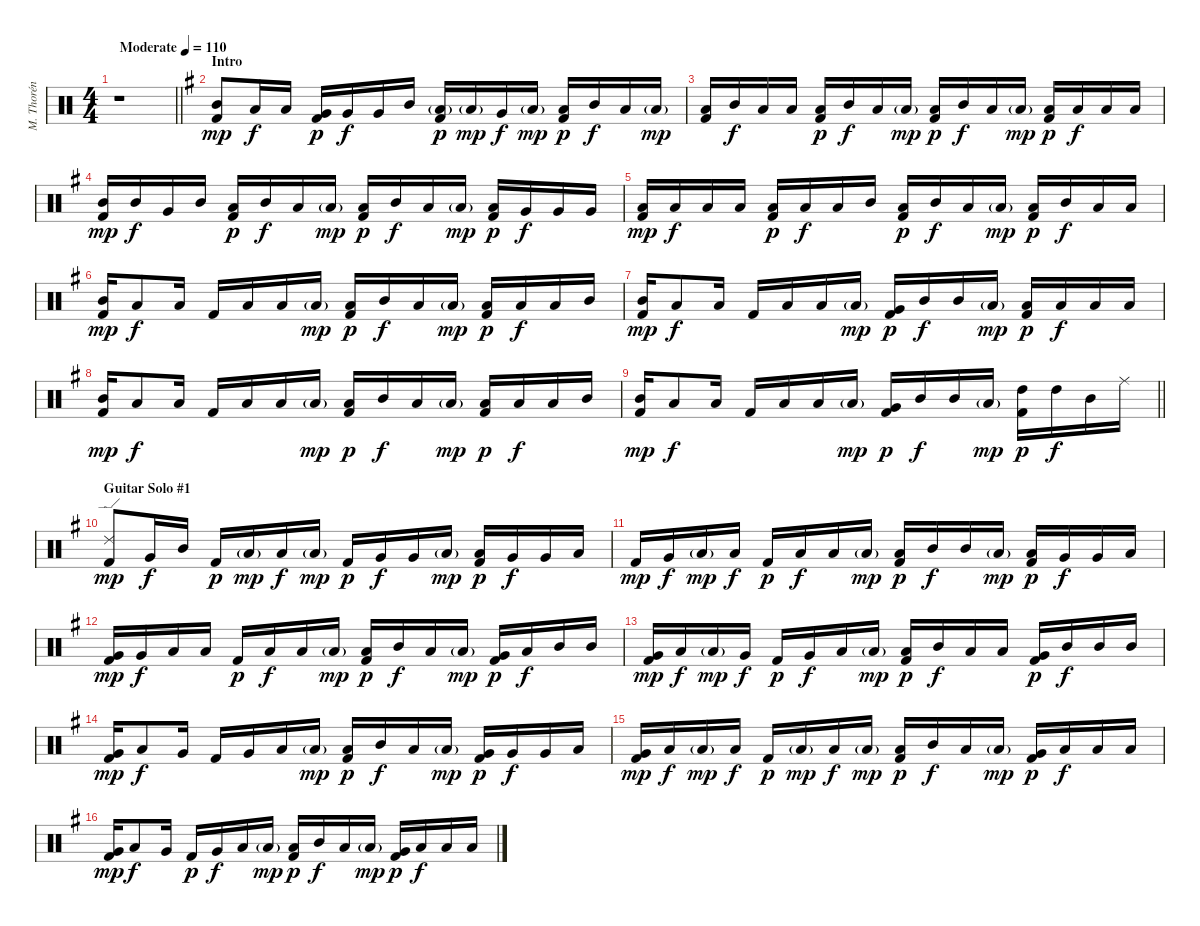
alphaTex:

\track ("M. Thorén (Drums)" "M. Thorén ") {instrument percussion}
\staff {score}
\articulation defaults
\ts (4 4)
\tempo (110 "Moderate")
\clef neutral
\barLineRight lightlight
\ks c
r.1{dy mp} |
\section ("" "Intro")
\ks eminor
("Mid Tom (hit)" "Kick (hit) 2").8 "Low Tom (hit)".16{dy f} "Low Tom (hit)".16 ("Very Low Tom (hit)" "Kick (hit) 2").16{dy p} "Very Low Tom (hit)".16{dy f} "Very Low Tom (hit)".16 "Mid Tom (hit)".16 ("Low Tom (hit)"{g} "Kick (hit) 2").16{dy p} "Low Tom (hit)"{g}.16{dy mp} "Very Low Tom (hit)".16{dy f} "Low Tom (hit)"{g}.16{dy mp} ("Low Floor Tom (hit)" "Kick (hit) 2").16{dy p} "Mid Tom (hit)".16{dy f} "Low Floor Tom (hit)".16 "Low Tom (hit)"{g}.16{dy mp} |
("Low Floor Tom (hit)" "Kick (hit) 2").16 "Mid Tom (hit)".16{dy f} "Low Tom (hit)".16 "Low Tom (hit)".16 ("Low Floor Tom (hit)" "Kick (hit) 2").16{dy p} "Mid Tom (hit)".16{dy f} "Low Floor Tom (hit)".16 "Low Tom (hit)"{g}.16{dy mp} ("Low Floor Tom (hit)" "Kick (hit) 2").16{dy p} "Mid Tom (hit)".16{dy f} "Low Floor Tom (hit)".16 "Low Tom (hit)"{g}.16{dy mp} ("Low Tom (hit)" "Kick (hit) 2").16{dy p} "Low Floor Tom (hit)".16{dy f} "Low Floor Tom (hit)".16 "Low Floor Tom (hit)".16 |
("Mid Tom (hit)" "Kick (hit) 2").16{dy mp} "Mid Tom (hit)".16{dy f} "Very Low Tom (hit)".16 "Mid Tom (hit)".16 ("Low Floor Tom (hit)" "Kick (hit) 2").16{dy p} "Mid Tom (hit)".16{dy f} "Low Floor Tom (hit)".16 "Low Tom (hit)"{g}.16{dy mp} ("Low Floor Tom (hit)" "Kick (hit) 2").16{dy p} "Mid Tom (hit)".16{dy f} "Low Floor Tom (hit)".16 "Low Tom (hit)"{g}.16{dy mp} ("Low Floor Tom (hit)" "Kick (hit) 2").16{dy p} "Very Low Tom (hit)".16{dy f} "Very Low Tom (hit)".16 "Very Low Tom (hit)".16 |
("Low Tom (hit)" "Kick (hit) 2").16{dy mp} "Low Tom (hit)".16{dy f} "Low Tom (hit)".16 "Low Tom (hit)".16 ("Low Floor Tom (hit)" "Kick (hit) 2").16{dy p} "Low Floor Tom (hit)".16{dy f} "Low Floor Tom (hit)".16 "Mid Tom (hit)".16 ("Low Floor Tom (hit)" "Kick (hit) 2").16{dy p} "Mid Tom (hit)".16{dy f} "Low Floor Tom (hit)".16 "Low Tom (hit)"{g}.16{dy mp} ("Low Floor Tom (hit)" "Kick (hit) 2").16{dy p} "Mid Tom (hit)".16{dy f} "Low Tom (hit)".16 "Low Tom (hit)".16 |
("Mid Tom (hit)" "Kick (hit) 2").16{dy mp} "Low Tom (hit)".8{dy f} "Low Tom (hit)".16 "Kick (hit) 2".16 "Low Tom (hit)".16 "Low Floor Tom (hit)".16 "Low Tom (hit)"{g}.16{dy mp} ("Low Floor Tom (hit)" "Kick (hit) 2").16{dy p} "Mid Tom (hit)".16{dy f} "Low Floor Tom (hit)".16 "Low Tom (hit)"{g}.16{dy mp} ("Low Floor Tom (hit)" "Kick (hit) 2").16{dy p} "Low Floor Tom (hit)".16{dy f} "Low Floor Tom (hit)".16 "Mid Tom (hit)".16 |
("Mid Tom (hit)" "Kick (hit) 2").16{dy mp} "Low Tom (hit)".8{dy f} "Low Tom (hit)".16 "Kick (hit) 2".16 "Low Tom (hit)".16 "Low Floor Tom (hit)".16 "Low Tom (hit)"{g}.16{dy mp} ("Very Low Tom (hit)" "Kick (hit) 2").16{dy p} "Mid Tom (hit)".16{dy f} "Mid Tom (hit)".16 "Low Tom (hit)"{g}.16{dy mp} ("Low Floor Tom (hit)" "Kick (hit) 2").16{dy p} "Low Tom (hit)".16{dy f} "Low Tom (hit)".16 "Low Tom (hit)".16 |
("Mid Tom (hit)" "Kick (hit) 2").16{dy mp} "Low Tom (hit)".8{dy f} "Low Tom (hit)".16 "Kick (hit) 2".16 "Low Tom (hit)".16 "Low Floor Tom (hit)".16 "Low Tom (hit)"{g}.16{dy mp} ("Low Floor Tom (hit)" "Kick (hit) 2").16{dy p} "Mid Tom (hit)".16{dy f} "Low Floor Tom (hit)".16 "Low Tom (hit)"{g}.16{dy mp} ("Low Floor Tom (hit)" "Kick (hit) 2").16{dy p} "Low Floor Tom (hit)".16{dy f} "Low Floor Tom (hit)".16 "Mid Tom (hit)".16 |
\barLineRight lightlight
("Mid Tom (hit)" "Kick (hit) 2").16{dy mp} "Low Tom (hit)".8{dy f} "Low Tom (hit)".16 "Kick (hit) 2".16 "Low Tom (hit)".16 "Low Floor Tom (hit)".16 "Low Tom (hit)"{g}.16{dy mp} ("Very Low Tom (hit)" "Kick (hit) 2").16{dy p} "Mid Tom (hit)".16{dy f} "Mid Tom (hit)".16 "Low Tom (hit)"{g}.16{dy mp} ("High Tom (hit)" "Kick (hit) 2").16{dy p} "High Tom (hit)".16{dy f} "Mid Tom (hit)".16 "Ride (middle)".16 |
\section ("" "Guitar Solo #1")
("Ride (edge) 2" "Kick (hit) 2").8{dy mp} "Very Low Tom (hit)".16{dy f} "Mid Tom (hit)".16 "Kick (hit) 2".16{dy p} "Low Tom (hit)"{g}.16{dy mp} "Low Floor Tom (hit)".16{dy f} "Low Tom (hit)"{g}.16{dy mp} "Kick (hit) 2".16{dy p} "Very Low Tom (hit)".16{dy f} "Very Low Tom (hit)".16 "Low Tom (hit)"{g}.16{dy mp} ("Low Tom (hit)" "Kick (hit) 2").16{dy p} "Very Low Tom (hit)".16{dy f} "Very Low Tom (hit)".16 "Low Tom (hit)".16 |
"Kick (hit) 2".16{dy mp} "Very Low Tom (hit)".16{dy f} "Low Tom (hit)"{g}.16{dy mp} "Low Tom (hit)".16{dy f} "Kick (hit) 2".16{dy p} "Low Tom (hit)".16{dy f} "Low Floor Tom (hit)".16 "Low Tom (hit)"{g}.16{dy mp} ("Low Floor Tom (hit)" "Kick (hit) 2").16{dy p} "Mid Tom (hit)".16{dy f} "Mid Tom (hit)".16 "Low Tom (hit)"{g}.16{dy mp} ("Low Tom (hit)" "Kick (hit) 2").16{dy p} "Very Low Tom (hit)".16{dy f} "Very Low Tom (hit)".16 "Low Tom (hit)".16 |
("Very Low Tom (hit)" "Kick (hit) 2").16{dy mp} "Very Low Tom (hit)".16{dy f} "Low Floor Tom (hit)".16 "Low Tom (hit)".16 "Kick (hit) 2".16{dy p} "Low Tom (hit)".16{dy f} "Low Floor Tom (hit)".16 "Low Tom (hit)"{g}.16{dy mp} ("Low Floor Tom (hit)" "Kick (hit) 2").16{dy p} "Mid Tom (hit)".16{dy f} "Low Floor Tom (hit)".16 "Low Tom (hit)"{g}.16{dy mp} ("Very Low Tom (hit)" "Kick (hit) 2").16{dy p} "Low Floor Tom (hit)".16{dy f} "Mid Tom (hit)".16 "Mid Tom (hit)".16 |
("Very Low Tom (hit)" "Kick (hit) 2").16{dy mp} "Low Floor Tom (hit)".16{dy f} "Low Floor Tom (hit)"{g}.16{dy mp} "Very Low Tom (hit)".16{dy f} "Kick (hit) 2".16{dy p} "Very Low Tom (hit)".16{dy f} "Low Floor Tom (hit)".16 "Low Tom (hit)"{g}.16{dy mp} ("Low Floor Tom (hit)" "Kick (hit) 2").16{dy p} "Mid Tom (hit)".16{dy f} "Low Floor Tom (hit)".16 "Low Floor Tom (hit)".16 ("Very Low Tom (hit)" "Kick (hit) 2").16{dy p} "Mid Tom (hit)".16{dy f} "Mid Tom (hit)".16 "Mid Tom (hit)".16 |
("Very Low Tom (hit)" "Kick (hit) 2").16{dy mp} "Low Floor Tom (hit)".8{dy f} "Very Low Tom (hit)".16 "Kick (hit) 2".16 "Very Low Tom (hit)".16 "Low Floor Tom (hit)".16 "Low Tom (hit)"{g}.16{dy mp} ("Low Floor Tom (hit)" "Kick (hit) 2").16{dy p} "Mid Tom (hit)".16{dy f} "Low Floor Tom (hit)".16 "Low Tom (hit)"{g}.16{dy mp} ("Very Low Tom (hit)" "Kick (hit) 2").16{dy p} "Very Low Tom (hit)".16{dy f} "Very Low Tom (hit)".16 "Low Tom (hit)".16 |
("Very Low Tom (hit)" "Kick (hit) 2").16{dy mp} "Low Floor Tom (hit)".16{dy f} "Low Tom (hit)"{g}.16{dy mp} "Low Tom (hit)".16{dy f} "Kick (hit) 2".16{dy p} "Low Tom (hit)"{g}.16{dy mp} "Low Floor Tom (hit)".16{dy f} "Low Tom (hit)"{g}.16{dy mp} ("Low Floor Tom (hit)" "Kick (hit) 2").16{dy p} "Mid Tom (hit)".16{dy f} "Low Floor Tom (hit)".16 "Low Tom (hit)"{g}.16{dy mp} ("Very Low Tom (hit)" "Kick (hit) 2").16{dy p} "Low Tom (hit)".16{dy f} "Low Tom (hit)".16 "Low Tom (hit)".16 |
("Very Low Tom (hit)" "Kick (hit) 2").16{dy mp} "Low Floor Tom (hit)".8{dy f} "Very Low Tom (hit)".16 "Kick (hit) 2".16{dy p} "Very Low Tom (hit)".16{dy f} "Low Floor Tom (hit)".16 "Low Tom (hit)"{g}.16{dy mp} ("Low Floor Tom (hit)" "Kick (hit) 2").16{dy p} "Mid Tom (hit)".16{dy f} "Low Floor Tom (hit)".16 "Low Tom (hit)"{g}.16{dy mp} ("Very Low Tom (hit)" "Kick (hit) 2").16{dy p} "Low Tom (hit)".16{dy f} "Low Tom (hit)".16 "Low Tom (hit)".16
